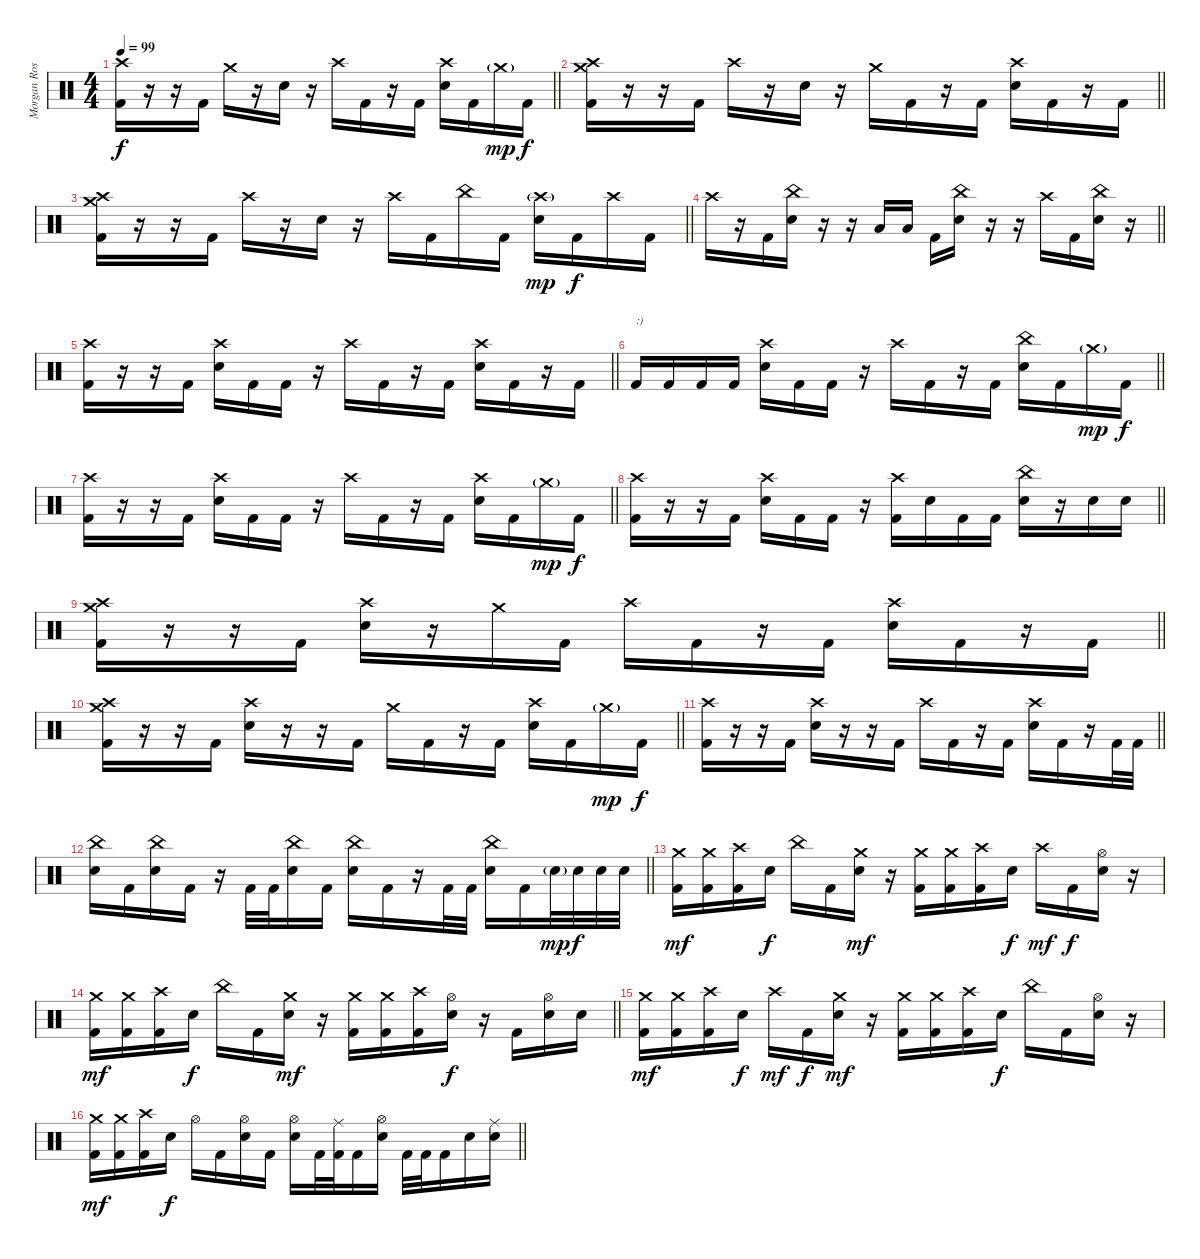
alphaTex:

\track ("Morgan Rose" "Morgan Ros") {instrument percussion}
\staff {score}
\articulation defaults
\ts (4 4)
\tempo 99
\clef neutral
\barLineRight lightlight
\ks c
("Crash high (hit)" "Kick (hit) 2").16{dy f} r.16 r.16 "Kick (hit) 2".16 "Crash medium (hit)".16 r.16 "Snare (hit) 2".16 r.16 "Crash high (hit)".16 "Kick (hit) 2".16 r.16 "Kick (hit) 2".16 ("Crash high (hit)" "Snare (hit) 2").16 "Kick (hit) 2".16 "Crash medium (hit)"{g}.16{dy mp} "Kick (hit) 2".16{dy f} |
\barLineRight lightlight
("Crash medium (hit)" "Crash high (hit)" "Kick (hit) 2").16 r.16 r.16 "Kick (hit) 2".16 "Crash high (hit)".16 r.16 "Snare (hit) 2".16 r.16 "Crash medium (hit)".16 "Kick (hit) 2".16 r.16 "Kick (hit) 2".16 ("Crash high (hit)" "Snare (hit) 2").16 "Kick (hit) 2".16 r.16 "Kick (hit) 2".16 |
\barLineRight lightlight
("Crash medium (hit)" "Crash high (hit)" "Kick (hit) 2").16 r.16 r.16 "Kick (hit) 2".16 "Crash high (hit)".16 r.16 "Snare (hit) 2".16 r.16 "Crash high (hit)".16 "Kick (hit) 2".16 "China (hit)".16 "Kick (hit) 2".16 ("Crash high (hit)"{g} "Snare (hit) 2").16{dy mp} "Kick (hit) 2".16{dy f} "Crash high (hit)".16 "Kick (hit) 2".16 |
\barLineRight lightlight "Crash high (hit)".16
r.16 "Kick (hit) 2".16 ("China (hit)" "Snare (hit) 2").16 r.16 r.16 "Low Tom (hit)".16 "Low Tom (hit)".16 "Kick (hit) 2".16 ("China (hit)" "Snare (hit) 2").16 r.16 r.16 "Crash high (hit)".16 "Kick (hit) 2".16 ("China (hit)" "Snare (hit) 2").16 r.16 |
\barLineRight lightlight
("Crash high (hit)" "Kick (hit) 2").16 r.16 r.16 "Kick (hit) 2".16 ("Crash high (hit)" "Snare (hit) 2").16 "Kick (hit) 2".16 "Kick (hit) 2".16 r.16 "Crash high (hit)".16 "Kick (hit) 2".16 r.16 "Kick (hit) 2".16 ("Crash high (hit)" "Snare (hit) 2").16 "Kick (hit) 2".16 r.16 "Kick (hit) 2".16 |
\barLineRight lightlight "Kick (hit) 2".16{txt ":)"} "Kick (hit) 2".16 "Kick (hit) 2".16 "Kick (hit) 2".16
("Crash high (hit)" "Snare (hit) 2").16 "Kick (hit) 2".16 "Kick (hit) 2".16 r.16 "Crash high (hit)".16 "Kick (hit) 2".16 r.16 "Kick (hit) 2".16 ("China (hit)" "Snare (hit) 2").16 "Kick (hit) 2".16 "Crash medium (hit)"{g}.16{dy mp} "Kick (hit) 2".16{dy f} |
\barLineRight lightlight
("Crash high (hit)" "Kick (hit) 2").16 r.16 r.16 "Kick (hit) 2".16 ("Crash high (hit)" "Snare (hit) 2").16 "Kick (hit) 2".16 "Kick (hit) 2".16 r.16 "Crash high (hit)".16 "Kick (hit) 2".16 r.16 "Kick (hit) 2".16 ("Crash high (hit)" "Snare (hit) 2").16 "Kick (hit) 2".16 "Crash medium (hit)"{g}.16{dy mp} "Kick (hit) 2".16{dy f} |
\barLineRight lightlight
("Crash high (hit)" "Kick (hit) 2").16 r.16 r.16 "Kick (hit) 2".16 ("Crash high (hit)" "Snare (hit) 2").16 "Kick (hit) 2".16 "Kick (hit) 2".16 r.16 ("Crash high (hit)" "Kick (hit) 2").16 "Snare (hit) 2".16 "Kick (hit) 2".16 "Kick (hit) 2".16 ("China (hit)" "Snare (hit) 2").16 r.16 "Snare (hit) 2".16 "Snare (hit) 2".16 |
\barLineRight lightlight
("Crash medium (hit)" "Crash high (hit)" "Kick (hit) 2").16 r.16 r.16 "Kick (hit) 2".16 ("Crash high (hit)" "Snare (hit) 2").16 r.16 "Crash medium (hit)".16 "Kick (hit) 2".16 "Crash high (hit)".16 "Kick (hit) 2".16 r.16 "Kick (hit) 2".16 ("Crash high (hit)" "Snare (hit) 2").16 "Kick (hit) 2".16 r.16 "Kick (hit) 2".16 |
\barLineRight lightlight
("Crash medium (hit)" "Crash high (hit)" "Kick (hit) 2").16 r.16 r.16 "Kick (hit) 2".16 ("Crash high (hit)" "Snare (hit) 2").16 r.16 r.16 "Kick (hit) 2".16 "Crash medium (hit)".16 "Kick (hit) 2".16 r.16 "Kick (hit) 2".16 ("Crash high (hit)" "Snare (hit) 2").16 "Kick (hit) 2".16 "Crash medium (hit)"{g}.16{dy mp} "Kick (hit) 2".16{dy f} |
\barLineRight lightlight
("Crash high (hit)" "Kick (hit) 2").16 r.16 r.16 "Kick (hit) 2".16 ("Crash high (hit)" "Snare (hit) 2").16 r.16 r.16 "Kick (hit) 2".16 "Crash high (hit)".16 "Kick (hit) 2".16 r.16 "Kick (hit) 2".16 ("Crash high (hit)" "Snare (hit) 2").16 "Kick (hit) 2".16 r.16 "Kick (hit) 2".32 "Kick (hit) 2".32 |
\barLineRight lightlight
("China (hit)" "Snare (hit) 2").16 "Kick (hit) 2".16 ("China (hit)" "Snare (hit) 2").16 "Kick (hit) 2".16 r.16 "Kick (hit) 2".32 "Kick (hit) 2".32 ("China (hit)" "Snare (hit) 2").16 "Kick (hit) 2".16 ("China (hit)" "Snare (hit) 2").16 "Kick (hit) 2".16 r.16 "Kick (hit) 2".32 "Kick (hit) 2".32 ("China (hit)" "Snare (hit) 2").16 "Kick (hit) 2".16 "Snare (hit) 2"{g}.32{dy mp} "Snare (hit) 2".32{dy f} "Snare (hit) 2".32 "Snare (hit) 2".32 |
("Crash medium (hit)" "Kick (hit) 2").16{dy mf} ("Crash medium (hit)" "Kick (hit) 2").16 ("Crash high (hit)" "Kick (hit) 2").16 "Snare (hit) 2".16{dy f} "China (hit)".16 "Kick (hit) 2".16 ("Crash medium (hit)" "Snare (hit) 2").16{dy mf} r.16 ("Crash medium (hit)" "Kick (hit) 2").16 ("Crash medium (hit)" "Kick (hit) 2").16 ("Crash high (hit)" "Kick (hit) 2").16 "Snare (hit) 2".16{dy f} "Crash high (hit)".16{dy mf} "Kick (hit) 2".16{dy f} ("Hi-Hat (open)" "Snare (hit) 2").16 r.16 |
\barLineRight lightlight
("Crash medium (hit)" "Kick (hit) 2").16{dy mf} ("Crash medium (hit)" "Kick (hit) 2").16 ("Crash high (hit)" "Kick (hit) 2").16 "Snare (hit) 2".16{dy f} "China (hit)".16 "Kick (hit) 2".16 ("Crash medium (hit)" "Snare (hit) 2").16{dy mf} r.16 ("Crash medium (hit)" "Kick (hit) 2").16 ("Crash medium (hit)" "Kick (hit) 2").16 ("Crash high (hit)" "Kick (hit) 2").16 ("Hi-Hat (open)" "Snare (hit) 2").16{dy f} r.16 "Kick (hit) 2".16 ("Hi-Hat (open)" "Snare (hit) 2").16 "Snare (hit) 2".16 |
("Crash medium (hit)" "Kick (hit) 2").16{dy mf} ("Crash medium (hit)" "Kick (hit) 2").16 ("Crash high (hit)" "Kick (hit) 2").16 "Snare (hit) 2".16{dy f} "Crash high (hit)".16{dy mf} "Kick (hit) 2".16{dy f} ("Crash medium (hit)" "Snare (hit) 2").16{dy mf} r.16 ("Crash medium (hit)" "Kick (hit) 2").16 ("Crash medium (hit)" "Kick (hit) 2").16 ("Crash high (hit)" "Kick (hit) 2").16 "Snare (hit) 2".16{dy f} "China (hit)".16 "Kick (hit) 2".16 ("Hi-Hat (open)" "Snare (hit) 2").16 r.16 |
\barLineRight lightlight
("Crash medium (hit)" "Kick (hit) 2").16{dy mf} ("Crash medium (hit)" "Kick (hit) 2").16 ("Crash high (hit)" "Kick (hit) 2").16 "Snare (hit) 2".16{dy f} "Hi-Hat (open)".16 "Kick (hit) 2".16 ("Hi-Hat (open)" "Snare (hit) 2").16 "Kick (hit) 2".16 ("Hi-Hat (open)" "Snare (hit) 2").16 "Kick (hit) 2".32 ("Ride (middle)" "Kick (hit) 2").32 "Kick (hit) 2".16 ("Hi-Hat (open)" "Snare (hit) 2").16 "Kick (hit) 2".32 "Kick (hit) 2".32 "Kick (hit) 2".16 "Snare (hit) 2".16 ("Ride (middle)" "Snare (hit) 2").16
